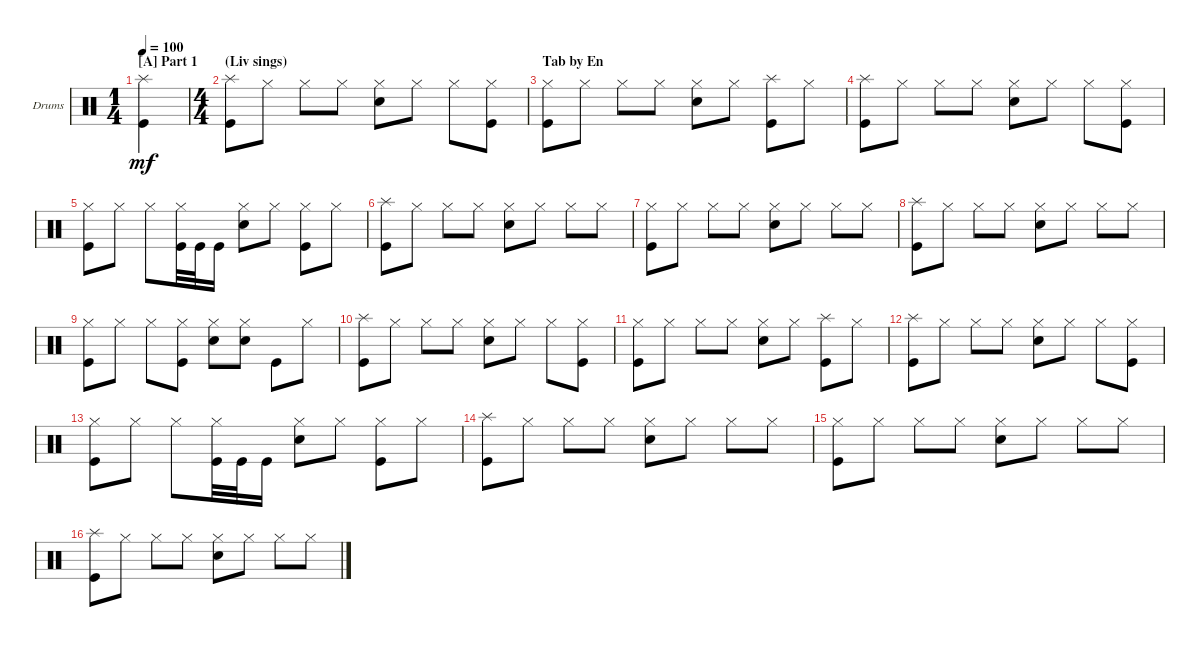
\bracketExtendMode groupsimilarinstruments
\firstSystemTrackNameOrientation horizontal
\otherSystemsTrackNameOrientation horizontal
\track ("Drumkit" "Drums") {instrument percussion}
\staff {score}
\articulation defaults
\ts (1 4)
\section ("A" "Part 1")
\tempo 100
\clef neutral
\ks c
("Splash (hit)" "Kick (hit)").4{dy mf} |
\ts (4 4)
\section ("" "(Liv sings)")
("Splash (hit)" "Kick (hit)").8 "Hi-Hat (closed)".8 "Hi-Hat (closed)".8 "Hi-Hat (closed)".8 ("Snare (hit) 2" "Hi-Hat (closed)").8 "Hi-Hat (closed)".8 "Hi-Hat (closed)".8 ("Hi-Hat (closed)" "Kick (hit)").8 |
\section ("" "Tab by En")
("Kick (hit)" "Hi-Hat (closed)").8 "Hi-Hat (closed)".8 "Hi-Hat (closed)".8 "Hi-Hat (closed)".8 ("Snare (hit) 2" "Hi-Hat (closed)").8 "Hi-Hat (closed)".8 ("Splash (hit)" "Kick (hit)").8 "Hi-Hat (closed)".8 |
("Splash (hit)" "Kick (hit)").8 "Hi-Hat (closed)".8 "Hi-Hat (closed)".8 "Hi-Hat (closed)".8 ("Snare (hit) 2" "Hi-Hat (closed)").8 "Hi-Hat (closed)".8 "Hi-Hat (closed)".8 ("Hi-Hat (closed)" "Kick (hit)").8 |
("Kick (hit)" "Hi-Hat (closed)").8 "Hi-Hat (closed)".8 "Hi-Hat (closed)".8 ("Kick (hit)" "Hi-Hat (closed)").32 "Kick (hit)".32 "Kick (hit)".16 ("Snare (hit) 2" "Hi-Hat (closed)").8 "Hi-Hat (closed)".8 ("Kick (hit)" "Hi-Hat (closed)").8 "Hi-Hat (closed)".8 |
("Splash (hit)" "Kick (hit)").8 "Hi-Hat (closed)".8 "Hi-Hat (closed)".8 "Hi-Hat (closed)".8 ("Snare (hit) 2" "Hi-Hat (closed)").8 "Hi-Hat (closed)".8 "Hi-Hat (closed)".8 "Hi-Hat (closed)".8 |
("Kick (hit)" "Hi-Hat (closed)").8 "Hi-Hat (closed)".8 "Hi-Hat (closed)".8 "Hi-Hat (closed)".8 ("Snare (hit) 2" "Hi-Hat (closed)").8 "Hi-Hat (closed)".8 "Hi-Hat (closed)".8 "Hi-Hat (closed)".8 |
("Splash (hit)" "Kick (hit)").8 "Hi-Hat (closed)".8 "Hi-Hat (closed)".8 "Hi-Hat (closed)".8 ("Snare (hit) 2" "Hi-Hat (closed)").8 "Hi-Hat (closed)".8 "Hi-Hat (closed)".8 "Hi-Hat (closed)".8 |
("Kick (hit)" "Hi-Hat (closed)").8 "Hi-Hat (closed)".8 "Hi-Hat (closed)".8 ("Kick (hit)" "Hi-Hat (closed)").8 ("Snare (hit) 2" "Hi-Hat (closed)").8 ("Snare (hit) 2" "Hi-Hat (closed)").8 "Kick (hit)".8 "Hi-Hat (closed)".8 |
("Splash (hit)" "Kick (hit)").8 "Hi-Hat (closed)".8 "Hi-Hat (closed)".8 "Hi-Hat (closed)".8 ("Snare (hit) 2" "Hi-Hat (closed)").8 "Hi-Hat (closed)".8 "Hi-Hat (closed)".8 ("Hi-Hat (closed)" "Kick (hit)").8 |
("Kick (hit)" "Hi-Hat (closed)").8 "Hi-Hat (closed)".8 "Hi-Hat (closed)".8 "Hi-Hat (closed)".8 ("Snare (hit) 2" "Hi-Hat (closed)").8 "Hi-Hat (closed)".8 ("Splash (hit)" "Kick (hit)").8 "Hi-Hat (closed)".8 |
("Splash (hit)" "Kick (hit)").8 "Hi-Hat (closed)".8 "Hi-Hat (closed)".8 "Hi-Hat (closed)".8 ("Snare (hit) 2" "Hi-Hat (closed)").8 "Hi-Hat (closed)".8 "Hi-Hat (closed)".8 ("Hi-Hat (closed)" "Kick (hit)").8 |
("Kick (hit)" "Hi-Hat (closed)").8 "Hi-Hat (closed)".8 "Hi-Hat (closed)".8 ("Kick (hit)" "Hi-Hat (closed)").32 "Kick (hit)".32 "Kick (hit)".16 ("Snare (hit) 2" "Hi-Hat (closed)").8 "Hi-Hat (closed)".8 ("Kick (hit)" "Hi-Hat (closed)").8 "Hi-Hat (closed)".8 |
("Splash (hit)" "Kick (hit)").8 "Hi-Hat (closed)".8 "Hi-Hat (closed)".8 "Hi-Hat (closed)".8 ("Snare (hit) 2" "Hi-Hat (closed)").8 "Hi-Hat (closed)".8 "Hi-Hat (closed)".8 "Hi-Hat (closed)".8 |
("Kick (hit)" "Hi-Hat (closed)").8 "Hi-Hat (closed)".8 "Hi-Hat (closed)".8 "Hi-Hat (closed)".8 ("Snare (hit) 2" "Hi-Hat (closed)").8 "Hi-Hat (closed)".8 "Hi-Hat (closed)".8 "Hi-Hat (closed)".8 |
("Splash (hit)" "Kick (hit)").8 "Hi-Hat (closed)".8 "Hi-Hat (closed)".8 "Hi-Hat (closed)".8 ("Snare (hit) 2" "Hi-Hat (closed)").8 "Hi-Hat (closed)".8 "Hi-Hat (closed)".8 "Hi-Hat (closed)".8
